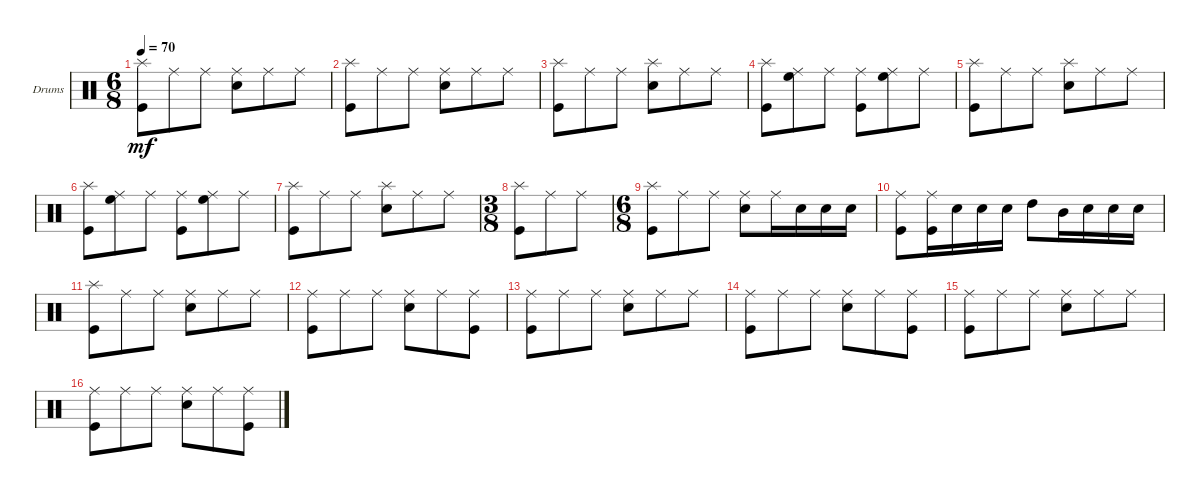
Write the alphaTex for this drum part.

\defaultSystemsLayout 4
\bracketExtendMode groupsimilarinstruments
\firstSystemTrackNameOrientation horizontal
\otherSystemsTrackNameOrientation horizontal
\track ("Drumkit" "Drums") {instrument percussion}
\staff {score}
\articulation defaults
\ts (6 8)
\tempo 70
\clef neutral
\scale
0.333333
\ks c
("Splash (hit)" "Kick (hit)").8{dy mf} "Ride (middle)".8 "Ride (middle)".8 ("Ride (middle)" "Snare (hit) 2").8 "Ride (middle)".8 "Ride (middle)".8 |
\scale
0.333333 ("Splash (hit)" "Kick (hit)").8 "Ride (middle)".8 "Ride (middle)".8 ("Ride (middle)" "Snare (hit) 2").8 "Ride (middle)".8 "Ride (middle)".8 |
\scale
0.333333 ("Splash (hit)" "Kick (hit)").8 "Ride (middle)".8 "Ride (middle)".8 ("Snare (hit) 2" "Splash (hit)").8 "Ride (middle)".8 "Ride (middle)".8 |
\scale
0.333333 ("Splash (hit)" "Kick (hit)").8 ("High Floor Tom (hit)" "Ride (middle)").8 "Ride (middle)".8 ("Ride (middle)" "Kick (hit)").8 ("Ride (middle)" "High Floor Tom (hit)").8 "Ride (middle)".8 |
\scale
0.333333 ("Splash (hit)" "Kick (hit)").8 "Ride (middle)".8 "Ride (middle)".8 ("Splash (hit)" "Snare (hit) 2").8 "Ride (middle)".8 "Ride (middle)".8 |
\scale
0.333333 ("Splash (hit)" "Kick (hit)").8 ("High Floor Tom (hit)" "Ride (middle)").8 "Ride (middle)".8 ("Ride (middle)" "Kick (hit)").8 ("Ride (middle)" "High Floor Tom (hit)").8 "Ride (middle)".8 |
\scale
0.218391 ("Splash (hit)" "Kick (hit)").8 "Ride (middle)".8 "Ride (middle)".8 ("Splash (hit)" "Snare (hit) 2").8 "Ride (middle)".8 "Ride (middle)".8 |
\ts (3 8)
\scale
0.390805 ("Splash (hit)" "Kick (hit)").8 "Ride (middle)".8 "Ride (middle)".8 |
\ts (6 8)
\scale
0.390805 ("Splash (hit)" "Kick (hit)").8 "Ride (middle)".8 "Ride (middle)".8 ("Ride (middle)" "Snare (hit) 2").8 "Ride (middle)".16 "Snare (hit) 2".16 "Snare (hit) 2".16 "Snare (hit) 2".16 |
\scale
0.333333 ("Ride (middle)" "Kick (hit)").8 ("Kick (hit)" "Ride (middle)").16 "Snare (hit) 2".16 "Snare (hit) 2".16 "Snare (hit) 2".16 "High Tom (hit)".8 "Mid Tom (hit)".16 "Snare (hit) 2".16 "Snare (hit) 2".16 "Snare (hit) 2".16 |
\scale
0.333333 ("Splash (hit)" "Kick (hit)").8 "Ride (middle)".8 "Ride (middle)".8 ("Ride (middle)" "Snare (hit) 2").8 "Ride (middle)".8 "Ride (middle)".8 |
\scale
0.333333 ("Ride (middle)" "Kick (hit)").8 "Ride (middle)".8 "Ride (middle)".8 ("Ride (middle)" "Snare (hit) 2").8 "Ride (middle)".8 ("Ride (middle)" "Kick (hit)").8 |
\scale
0.333333 ("Ride (middle)" "Kick (hit)").8 "Ride (middle)".8 "Ride (middle)".8 ("Ride (middle)" "Snare (hit) 2").8 "Ride (middle)".8 "Ride (middle)".8 |
\scale
0.333333 ("Ride (middle)" "Kick (hit)").8 "Ride (middle)".8 "Ride (middle)".8 ("Ride (middle)" "Snare (hit) 2").8 "Ride (middle)".8 ("Ride (middle)" "Kick (hit)").8 |
\scale
0.333333 ("Ride (middle)" "Kick (hit)").8 "Ride (middle)".8 "Ride (middle)".8 ("Ride (middle)" "Snare (hit) 2").8 "Ride (middle)".8 "Ride (middle)".8 |
\scale
0.333333 ("Ride (middle)" "Kick (hit)").8 "Ride (middle)".8 "Ride (middle)".8 ("Ride (middle)" "Snare (hit) 2").8 "Ride (middle)".8 ("Ride (middle)" "Kick (hit)").8
